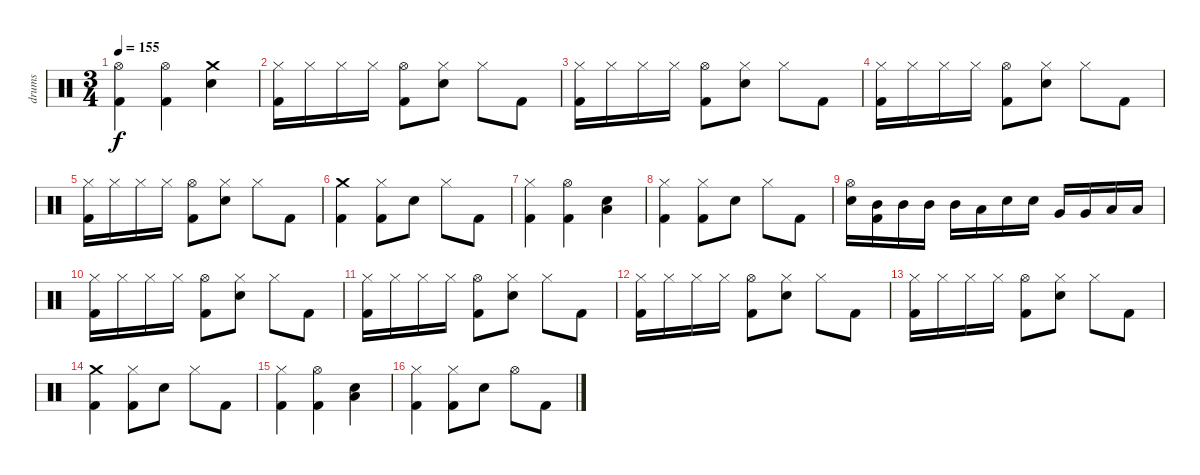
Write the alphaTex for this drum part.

\track ("drums" "drums") {instrument percussion}
\staff {score}
\articulation defaults
\ts (3 4)
\tempo 155
\clef neutral
\ks c
("Hi-Hat (open)" "Kick (hit) 2").4{dy f} ("Hi-Hat (open)" "Kick (hit) 2").4 ("Crash medium (hit)" "Electric Snare (hit)").4 |
("Hi-Hat (closed)" "Kick (hit) 2").16 "Hi-Hat (closed)".16 "Hi-Hat (closed)".16 "Hi-Hat (closed)".16 ("Hi-Hat (open)" "Kick (hit) 2").8 ("Hi-Hat (closed)" "Electric Snare (hit)").8 "Hi-Hat (closed)".8 "Kick (hit) 2".8 |
("Hi-Hat (closed)" "Kick (hit) 2").16 "Hi-Hat (closed)".16 "Hi-Hat (closed)".16 "Hi-Hat (closed)".16 ("Hi-Hat (open)" "Kick (hit) 2").8 ("Hi-Hat (closed)" "Electric Snare (hit)").8 "Hi-Hat (closed)".8 "Kick (hit) 2".8 |
("Hi-Hat (closed)" "Kick (hit) 2").16 "Hi-Hat (closed)".16 "Hi-Hat (closed)".16 "Hi-Hat (closed)".16 ("Hi-Hat (open)" "Kick (hit) 2").8 ("Hi-Hat (closed)" "Electric Snare (hit)").8 "Hi-Hat (closed)".8 "Kick (hit) 2".8 |
("Hi-Hat (closed)" "Kick (hit) 2").16 "Hi-Hat (closed)".16 "Hi-Hat (closed)".16 "Hi-Hat (closed)".16 ("Hi-Hat (open)" "Kick (hit) 2").8 ("Hi-Hat (closed)" "Electric Snare (hit)").8 "Hi-Hat (closed)".8 "Kick (hit) 2".8 |
("Crash medium (hit)" "Kick (hit) 2").4 ("Hi-Hat (closed)" "Kick (hit) 2").8 "Electric Snare (hit)".8 "Hi-Hat (closed)".8 "Kick (hit) 2".8 |
("Hi-Hat (closed)" "Kick (hit) 2").4 ("Hi-Hat (open)" "Kick (hit) 2").4 ("Low Floor Tom (hit)" "Electric Snare (hit)").4 |
("Hi-Hat (closed)" "Kick (hit) 2").4 ("Hi-Hat (closed)" "Kick (hit) 2").8 "Electric Snare (hit)".8 "Hi-Hat (closed)".8 "Kick (hit) 2".8 |
("Hi-Hat (open)" "Electric Snare (hit)").16 ("Mid Tom (hit)" "Kick (hit) 2").16 "Mid Tom (hit)".16 "Mid Tom (hit)".16 "Mid Tom (hit)".16 "Low Tom (hit)".16 "Electric Snare (hit)".16 "Electric Snare (hit)".16 "Very Low Tom (hit)".16 "Very Low Tom (hit)".16 "Low Floor Tom (hit)".16 "Low Floor Tom (hit)".16 |
("Hi-Hat (closed)" "Kick (hit) 2").16 "Hi-Hat (closed)".16 "Hi-Hat (closed)".16 "Hi-Hat (closed)".16 ("Hi-Hat (open)" "Kick (hit) 2").8 ("Hi-Hat (closed)" "Electric Snare (hit)").8 "Hi-Hat (closed)".8 "Kick (hit) 2".8 |
("Hi-Hat (closed)" "Kick (hit) 2").16 "Hi-Hat (closed)".16 "Hi-Hat (closed)".16 "Hi-Hat (closed)".16 ("Hi-Hat (open)" "Kick (hit) 2").8 ("Hi-Hat (closed)" "Electric Snare (hit)").8 "Hi-Hat (closed)".8 "Kick (hit) 2".8 |
("Hi-Hat (closed)" "Kick (hit) 2").16 "Hi-Hat (closed)".16 "Hi-Hat (closed)".16 "Hi-Hat (closed)".16 ("Hi-Hat (open)" "Kick (hit) 2").8 ("Hi-Hat (closed)" "Electric Snare (hit)").8 "Hi-Hat (closed)".8 "Kick (hit) 2".8 |
("Hi-Hat (closed)" "Kick (hit) 2").16 "Hi-Hat (closed)".16 "Hi-Hat (closed)".16 "Hi-Hat (closed)".16 ("Hi-Hat (open)" "Kick (hit) 2").8 ("Hi-Hat (closed)" "Electric Snare (hit)").8 "Hi-Hat (closed)".8 "Kick (hit) 2".8 |
("Crash medium (hit)" "Kick (hit) 2").4 ("Hi-Hat (closed)" "Kick (hit) 2").8 "Electric Snare (hit)".8 "Hi-Hat (closed)".8 "Kick (hit) 2".8 |
("Hi-Hat (closed)" "Kick (hit) 2").4 ("Hi-Hat (open)" "Kick (hit) 2").4 ("Low Floor Tom (hit)" "Electric Snare (hit)").4 |
("Hi-Hat (closed)" "Kick (hit) 2").4 ("Hi-Hat (closed)" "Kick (hit) 2").8 "Electric Snare (hit)".8 "Hi-Hat (open)".8 "Kick (hit) 2".8
